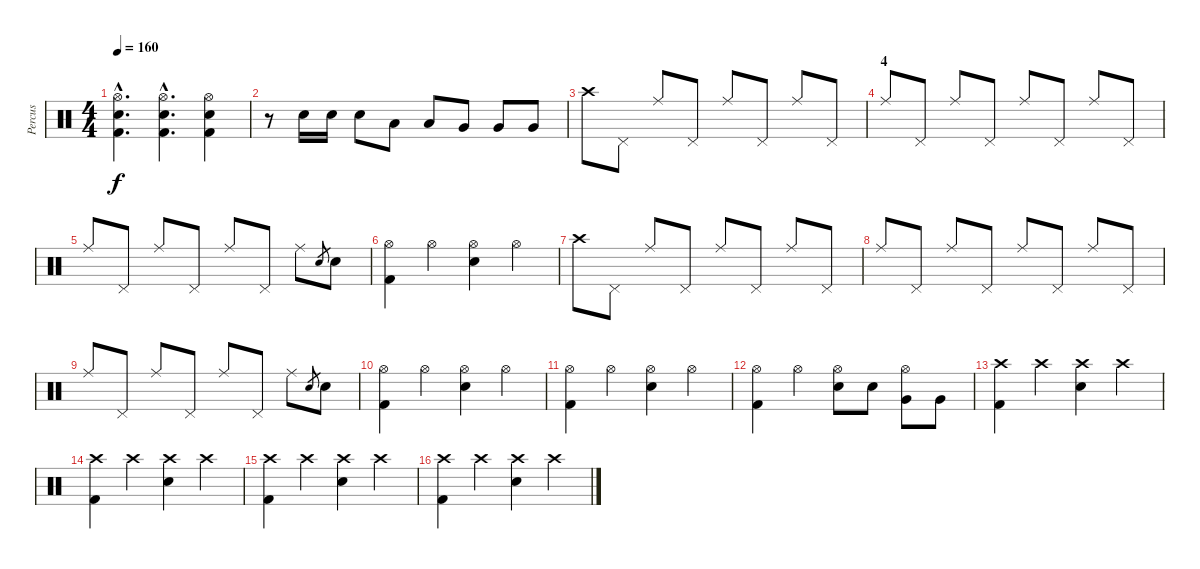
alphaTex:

\track ("Percus" "Percus") {instrument percussion}
\staff {score}
\articulation defaults
\ts (4 4)
\tempo 160
\clef neutral
\ks c
("Hi-Hat (open)"{hac} "Electric Snare (hit)"{hac} "Kick (hit) 2"{hac}).4{d dy f} ("Hi-Hat (open)"{hac} "Electric Snare (hit)"{hac} "Kick (hit) 2"{hac}).4{d} ("Hi-Hat (open)" "Electric Snare (hit)" "Kick (hit) 2").4 |
r.8 "Electric Snare (hit)".16 "Electric Snare (hit)".16 "Electric Snare (hit)".8 "Low Tom (hit)".8 "Low Tom (hit)".8 "Very Low Tom (hit)".8 "Very Low Tom (hit)".8 "Very Low Tom (hit)".8 |
"Crash high (hit)".8 "Pedal Hi-Hat (hit)".8 "Ride (middle)".8 "Pedal Hi-Hat (hit)".8 "Ride (middle)".8 "Pedal Hi-Hat (hit)".8 "Ride (middle)".8 "Pedal Hi-Hat (hit)".8 |
\section ("" "4")
"Ride (middle)".8 "Pedal Hi-Hat (hit)".8 "Ride (middle)".8 "Pedal Hi-Hat (hit)".8 "Ride (middle)".8 "Pedal Hi-Hat (hit)".8 "Ride (middle)".8 "Pedal Hi-Hat (hit)".8 |
"Ride (middle)".8 "Pedal Hi-Hat (hit)".8 "Ride (middle)".8 "Pedal Hi-Hat (hit)".8 "Ride (middle)".8 "Pedal Hi-Hat (hit)".8 "Ride (middle)".8 "Electric Snare (hit)".8{gr} "Electric Snare (hit)".8 |
("Hi-Hat (open)" "Kick (hit) 2").4 "Hi-Hat (open)".4 ("Hi-Hat (open)" "Electric Snare (hit)").4 "Hi-Hat (open)".4 |
"Crash high (hit)".8 "Pedal Hi-Hat (hit)".8 "Ride (middle)".8 "Pedal Hi-Hat (hit)".8 "Ride (middle)".8 "Pedal Hi-Hat (hit)".8 "Ride (middle)".8 "Pedal Hi-Hat (hit)".8 |
"Ride (middle)".8 "Pedal Hi-Hat (hit)".8 "Ride (middle)".8 "Pedal Hi-Hat (hit)".8 "Ride (middle)".8 "Pedal Hi-Hat (hit)".8 "Ride (middle)".8 "Pedal Hi-Hat (hit)".8 |
"Ride (middle)".8 "Pedal Hi-Hat (hit)".8 "Ride (middle)".8 "Pedal Hi-Hat (hit)".8 "Ride (middle)".8 "Pedal Hi-Hat (hit)".8 "Ride (middle)".8 "Electric Snare (hit)".8{gr} "Electric Snare (hit)".8 |
("Hi-Hat (open)" "Kick (hit) 2").4 "Hi-Hat (open)".4 ("Hi-Hat (open)" "Electric Snare (hit)").4 "Hi-Hat (open)".4 |
("Hi-Hat (open)" "Kick (hit) 2").4 "Hi-Hat (open)".4 ("Hi-Hat (open)" "Electric Snare (hit)").4 "Hi-Hat (open)".4 |
("Hi-Hat (open)" "Kick (hit) 2").4 "Hi-Hat (open)".4 ("Hi-Hat (open)" "Electric Snare (hit)").8 "Electric Snare (hit)".8 ("Hi-Hat (open)" "Very Low Tom (hit)").8 "Very Low Tom (hit)".8 |
\section ("" "")
("Crash high (hit)" "Kick (hit) 2").4 "Crash high (hit)".4 ("Crash high (hit)" "Electric Snare (hit)").4 "Crash high (hit)".4 |
("Crash high (hit)" "Kick (hit) 2").4 "Crash high (hit)".4 ("Crash high (hit)" "Electric Snare (hit)").4 "Crash high (hit)".4 |
("Crash high (hit)" "Kick (hit) 2").4 "Crash high (hit)".4 ("Crash high (hit)" "Electric Snare (hit)").4 "Crash high (hit)".4 |
("Crash high (hit)" "Kick (hit) 2").4 "Crash high (hit)".4 ("Crash high (hit)" "Electric Snare (hit)").4 "Crash high (hit)".4
